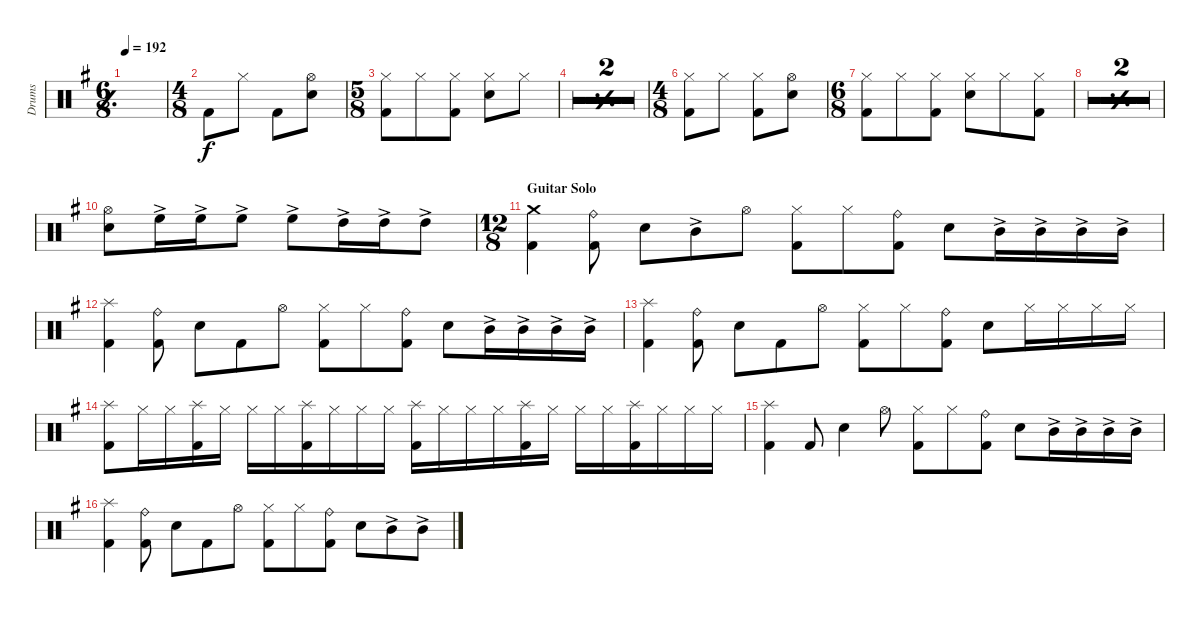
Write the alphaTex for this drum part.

\defaultSystemsLayout 4
\bracketExtendMode groupsimilarinstruments
\otherSystemsTrackNameOrientation horizontal
\track ("Drumkit" "Drums") {multiBarRest instrument percussion}
\staff {score}
\articulation defaults
\ts (6 8)
\tempo 192
\clef neutral
\simile simple
\ks g
|
\ts (4 8)
\beaming (8 2 2)
\simile none "Kick (hit) 2"{acc forcenatural}.8 "Hi-Hat (closed)"{acc forcenatural}.8 "Kick (hit) 2"{acc forcenatural}.8
("Hi-Hat (open)"{acc forcenatural} "Snare (hit) 2"{acc forcenatural}).8 |
\ts (5 8)
\beaming (8 3 3)
("Hi-Hat (closed)"{acc forcenatural} "Kick (hit) 2"{acc forcenatural}).8 "Hi-Hat (closed)"{acc forcenatural}.8 ("Hi-Hat (closed)"{acc forcenatural} "Kick (hit) 2"{acc forcenatural}).8 ("Hi-Hat (closed)"{acc forcenatural} "Snare (hit) 2"{acc forcenatural}).8 "Hi-Hat (closed)"{acc forcenatural}.8 |
\simile simple
|
|
\ts (4 8)
\beaming (8 2 2)
\simile none
("Hi-Hat (closed)"{acc forcenatural} "Kick (hit) 2"{acc forcenatural}).8 "Hi-Hat (closed)"{acc forcenatural}.8 ("Hi-Hat (closed)"{acc forcenatural} "Kick (hit) 2"{acc forcenatural}).8 ("Hi-Hat (open)"{acc forcenatural} "Snare (hit) 2"{acc forcenatural}).8 |
\ts (6 8)
\beaming (8 3 3)
("Hi-Hat (closed)"{acc forcenatural} "Kick (hit) 2"{acc forcenatural}).8 "Hi-Hat (closed)"{acc forcenatural}.8 ("Hi-Hat (closed)"{acc forcenatural} "Kick (hit) 2"{acc forcenatural}).8 ("Hi-Hat (closed)"{acc forcenatural} "Snare (hit) 2"{acc forcenatural}).8 "Hi-Hat (closed)"{acc forcenatural}.8 ("Hi-Hat (closed)"{acc forcenatural} "Kick (hit) 2"{acc forcenatural}).8 |
\simile simple
|
|
\simile none
("Hi-Hat (open)"{acc forcenatural} "Snare (hit) 2"{acc forcenatural}).8 "High Floor Tom (hit)"{ac acc forcenatural}.16 "High Floor Tom (hit)"{ac acc forcenatural}.16 "High Floor Tom (hit)"{ac acc forcenatural}.8 "High Floor Tom (hit)"{ac acc forcenatural}.8 "High Tom (hit)"{ac acc forcenatural}.16 "High Tom (hit)"{ac acc forcenatural}.16 "High Tom (hit)"{ac acc forcenatural}.8 |
\ts (12 8)
\beaming (8 3 3 3 3)
\section ("" "Guitar Solo")
("Crash medium (hit)"{acc forcenatural} "Kick (hit) 2"{acc forcenatural}).4 ("Ride (bell)"{acc forcenatural} "Kick (hit) 2"{acc forcenatural}).8 "Snare (hit) 2"{acc forcenatural}.8 "Mid Tom (hit)"{ac acc forcenatural}.8 "Hi-Hat (open)"{acc forcenatural}.8 ("Kick (hit) 2"{acc forcenatural} "Hi-Hat (closed)"{acc forcenatural}).8 "Hi-Hat (closed)"{acc forcenatural}.8 ("Ride (bell)"{acc forcenatural} "Kick (hit) 2"{acc forcenatural}).8 "Snare (hit) 2"{acc forcenatural}.8 "Mid Tom (hit)"{ac acc forcenatural}.16 "Mid Tom (hit)"{ac acc forcenatural}.16 "Mid Tom (hit)"{ac acc forcenatural}.16 "Mid Tom (hit)"{ac acc forcenatural}.16 |
("Splash (hit)"{acc forcenatural} "Kick (hit) 2"{acc forcenatural}).4 ("Ride (bell)"{acc forcenatural} "Kick (hit) 2"{acc forcenatural}).8 "Snare (hit) 2"{acc forcenatural}.8 "Kick (hit) 2"{acc forcenatural}.8 "Hi-Hat (open)"{acc forcenatural}.8 ("Kick (hit) 2"{acc forcenatural} "Hi-Hat (closed)"{acc forcenatural}).8 "Hi-Hat (closed)"{acc forcenatural}.8 ("Ride (bell)"{acc forcenatural} "Kick (hit) 2"{acc forcenatural}).8 "Snare (hit) 2"{acc forcenatural}.8 "Mid Tom (hit)"{ac acc forcenatural}.16 "Mid Tom (hit)"{ac acc forcenatural}.16 "Mid Tom (hit)"{ac acc forcenatural}.16 "Mid Tom (hit)"{ac acc forcenatural}.16 |
("Splash (hit)"{acc forcenatural} "Kick (hit) 2"{acc forcenatural}).4 ("Ride (bell)"{acc forcenatural} "Kick (hit) 2"{acc forcenatural}).8 "Snare (hit) 2"{acc forcenatural}.8 "Kick (hit) 2"{acc forcenatural}.8 "Hi-Hat (open)"{acc forcenatural}.8 ("Kick (hit) 2"{acc forcenatural} "Hi-Hat (closed)"{acc forcenatural}).8 "Hi-Hat (closed)"{acc forcenatural}.8 ("Ride (bell)"{acc forcenatural} "Kick (hit) 2"{acc forcenatural}).8 "Snare (hit) 2"{acc forcenatural}.8 "Hi-Hat (closed)"{acc forcenatural}.16 "Hi-Hat (closed)"{acc forcenatural}.16 "Hi-Hat (closed)"{acc forcenatural}.16 "Hi-Hat (closed)"{acc forcenatural}.16 |
("Splash (hit)"{acc forcenatural} "Kick (hit) 2"{acc forcenatural}).8 "Hi-Hat (closed)"{acc forcenatural}.16 "Hi-Hat (closed)"{acc forcenatural}.16 ("Kick (hit) 2"{acc forcenatural} "Splash (hit)"{acc forcenatural}).16 "Hi-Hat (closed)"{acc forcenatural}.16 "Hi-Hat (closed)"{acc forcenatural}.16 "Hi-Hat (closed)"{acc forcenatural}.16 ("Splash (hit)"{acc forcenatural} "Kick (hit) 2"{acc forcenatural}).16 "Hi-Hat (closed)"{acc forcenatural}.16 "Hi-Hat (closed)"{acc forcenatural}.16 "Hi-Hat (closed)"{acc forcenatural}.16 ("Kick (hit) 2"{acc forcenatural} "Splash (hit)"{acc forcenatural}).16 "Hi-Hat (closed)"{acc forcenatural}.16 "Hi-Hat (closed)"{acc forcenatural}.16 "Hi-Hat (closed)"{acc forcenatural}.16 ("Splash (hit)"{acc forcenatural} "Kick (hit) 2"{acc forcenatural}).16 "Hi-Hat (closed)"{acc forcenatural}.16 "Hi-Hat (closed)"{acc forcenatural}.16 "Hi-Hat (closed)"{acc forcenatural}.16 ("Kick (hit) 2"{acc forcenatural} "Splash (hit)"{acc forcenatural}).16 "Hi-Hat (closed)"{acc forcenatural}.16 "Hi-Hat (closed)"{acc forcenatural}.16 "Hi-Hat (closed)"{acc forcenatural}.16 |
("Splash (hit)"{acc forcenatural} "Kick (hit) 2"{acc forcenatural}).4 "Kick (hit) 2"{acc forcenatural}.8 "Snare (hit) 2"{acc forcenatural}.4 "Hi-Hat (open)"{acc forcenatural}.8 ("Kick (hit) 2"{acc forcenatural} "Hi-Hat (closed)"{acc forcenatural}).8 "Hi-Hat (closed)"{acc forcenatural}.8 ("Kick (hit) 2"{acc forcenatural} "Ride (bell)"{acc forcenatural}).8 "Snare (hit) 2"{acc forcenatural}.8 "Mid Tom (hit)"{ac acc forcenatural}.16 "Mid Tom (hit)"{ac acc forcenatural}.16 "Mid Tom (hit)"{ac acc forcenatural}.16 "Mid Tom (hit)"{ac acc forcenatural}.16 |
("Splash (hit)"{acc forcenatural} "Kick (hit) 2"{acc forcenatural}).4 ("Ride (bell)"{acc forcenatural} "Kick (hit) 2"{acc forcenatural}).8 "Snare (hit) 2"{acc forcenatural}.8 "Kick (hit) 2"{acc forcenatural}.8 "Hi-Hat (open)"{acc forcenatural}.8 ("Kick (hit) 2"{acc forcenatural} "Hi-Hat (closed)"{acc forcenatural}).8 "Hi-Hat (closed)"{acc forcenatural}.8 ("Ride (bell)"{acc forcenatural} "Kick (hit) 2"{acc forcenatural}).8 "Snare (hit) 2"{acc forcenatural}.8 "Mid Tom (hit)"{ac acc forcenatural}.8 "Mid Tom (hit)"{ac acc forcenatural}.8
